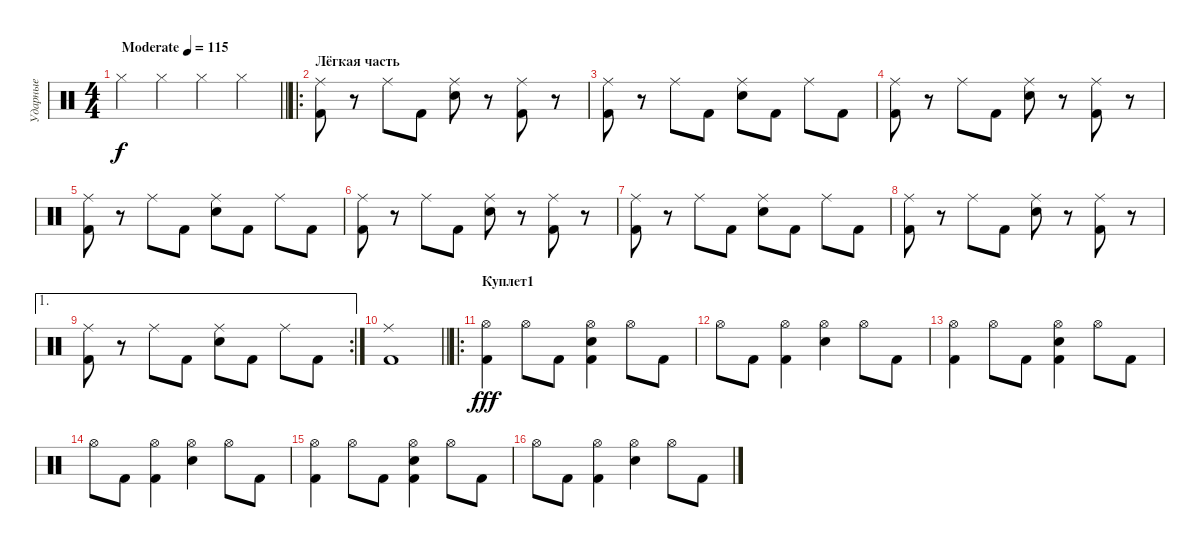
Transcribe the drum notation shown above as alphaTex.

\track ("Ударные" "Ударные") {instrument percussion}
\staff {score}
\articulation defaults
\ts (4 4)
\tempo (115 "Moderate")
\clef neutral
\barLineRight lightlight
\ks c "Hi-Hat (closed)".4{dy f} "Hi-Hat (closed)".4 "Hi-Hat (closed)".4 "Hi-Hat (closed)".4
|
\ro
\section ("" "Лёгкая часть")
("Ride (middle)" "Kick (hit) 2").8 r.8 "Ride (middle)".8 "Kick (hit) 2".8 ("Snare (hit) 2" "Ride (middle)").8 r.8 ("Ride (middle)" "Kick (hit) 2").8 r.8 |
("Ride (middle)" "Kick (hit) 2").8 r.8 "Ride (middle)".8 "Kick (hit) 2".8 ("Snare (hit) 2" "Ride (middle)").8 "Kick (hit) 2".8 "Ride (middle)".8 "Kick (hit) 2".8 |
("Ride (middle)" "Kick (hit) 2").8 r.8 "Ride (middle)".8 "Kick (hit) 2".8 ("Snare (hit) 2" "Ride (middle)").8 r.8 ("Ride (middle)" "Kick (hit) 2").8 r.8 |
("Ride (middle)" "Kick (hit) 2").8 r.8 "Ride (middle)".8 "Kick (hit) 2".8 ("Snare (hit) 2" "Ride (middle)").8 "Kick (hit) 2".8 "Ride (middle)".8 "Kick (hit) 2".8 |
("Ride (middle)" "Kick (hit) 2").8 r.8 "Ride (middle)".8 "Kick (hit) 2".8 ("Snare (hit) 2" "Ride (middle)").8 r.8 ("Ride (middle)" "Kick (hit) 2").8 r.8 |
("Ride (middle)" "Kick (hit) 2").8 r.8 "Ride (middle)".8 "Kick (hit) 2".8 ("Snare (hit) 2" "Ride (middle)").8 "Kick (hit) 2".8 "Ride (middle)".8 "Kick (hit) 2".8 |
("Ride (middle)" "Kick (hit) 2").8 r.8 "Ride (middle)".8 "Kick (hit) 2".8 ("Snare (hit) 2" "Ride (middle)").8 r.8 ("Ride (middle)" "Kick (hit) 2").8 r.8 |
\ae 1
\rc 2
("Ride (middle)" "Kick (hit) 2").8 r.8 "Ride (middle)".8 "Kick (hit) 2".8 ("Snare (hit) 2" "Ride (middle)").8 "Kick (hit) 2".8 "Ride (middle)".8 "Kick (hit) 2".8 |
\barLineRight lightlight
("Ride (middle)" "Kick (hit) 2").1 |
\ro
\section ("" "Куплет1")
("Hi-Hat (open)" "Kick (hit) 2").4{dy fff} "Hi-Hat (open)".8 "Kick (hit) 2".8 ("Hi-Hat (open)" "Snare (hit) 2" "Kick (hit) 2").4 "Hi-Hat (open)".8 "Kick (hit) 2".8 |
"Hi-Hat (open)".8 "Kick (hit) 2".8 ("Hi-Hat (open)" "Kick (hit) 2").4 ("Hi-Hat (open)" "Snare (hit) 2").4 "Hi-Hat (open)".8 "Kick (hit) 2".8 |
("Hi-Hat (open)" "Kick (hit) 2").4 "Hi-Hat (open)".8 "Kick (hit) 2".8 ("Hi-Hat (open)" "Snare (hit) 2" "Kick (hit) 2").4 "Hi-Hat (open)".8 "Kick (hit) 2".8 |
"Hi-Hat (open)".8 "Kick (hit) 2".8 ("Hi-Hat (open)" "Kick (hit) 2").4 ("Hi-Hat (open)" "Snare (hit) 2").4 "Hi-Hat (open)".8 "Kick (hit) 2".8 |
("Hi-Hat (open)" "Kick (hit) 2").4 "Hi-Hat (open)".8 "Kick (hit) 2".8 ("Hi-Hat (open)" "Snare (hit) 2" "Kick (hit) 2").4 "Hi-Hat (open)".8 "Kick (hit) 2".8 |
"Hi-Hat (open)".8 "Kick (hit) 2".8 ("Hi-Hat (open)" "Kick (hit) 2").4 ("Hi-Hat (open)" "Snare (hit) 2").4 "Hi-Hat (open)".8 "Kick (hit) 2".8
